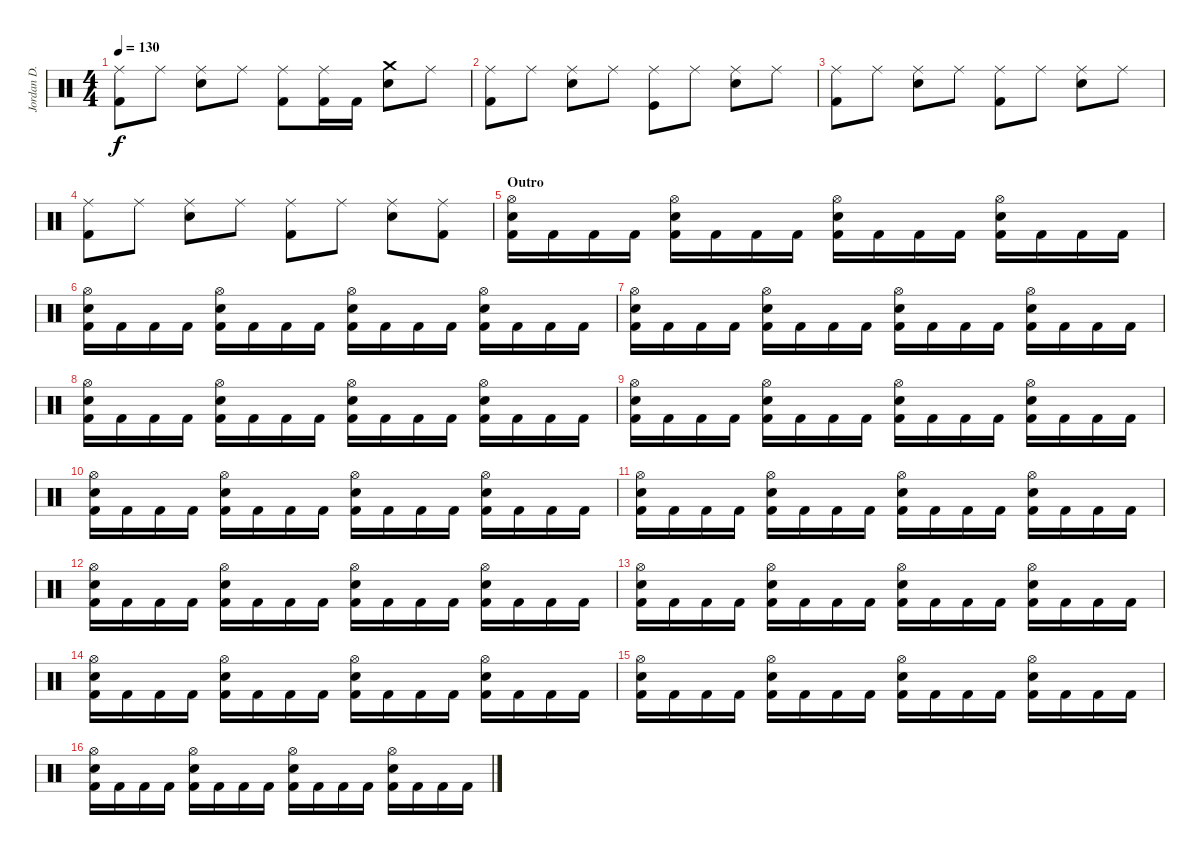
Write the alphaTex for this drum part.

\track ("Jordan D. Samolesky" "Jordan D. ") {instrument percussion}
\staff {score}
\articulation defaults
\ts (4 4)
\tempo 130
\clef neutral
\ks c
("Ride (middle)" "Kick (hit) 2").8{dy f} "Ride (middle)".8 ("Electric Snare (hit)" "Ride (middle)").8 "Ride (middle)".8 ("Ride (middle)" "Kick (hit) 2").8 ("Ride (middle)" "Kick (hit) 2").16 "Kick (hit) 2".16 ("Crash medium (hit)" "Electric Snare (hit)").8 "Ride (middle)".8 |
("Ride (middle)" "Kick (hit) 2").8 "Ride (middle)".8 ("Electric Snare (hit)" "Ride (middle)").8 "Ride (middle)".8 ("Ride (middle)" "Kick (hit)").8 "Ride (middle)".8 ("Electric Snare (hit)" "Ride (middle)").8 "Ride (middle)".8 |
("Ride (middle)" "Kick (hit) 2").8 "Ride (middle)".8 ("Electric Snare (hit)" "Ride (middle)").8 "Ride (middle)".8 ("Ride (middle)" "Kick (hit) 2").8 "Ride (middle)".8 ("Electric Snare (hit)" "Ride (middle)").8 "Ride (middle)".8 |
("Ride (middle)" "Kick (hit) 2").8 "Ride (middle)".8 ("Electric Snare (hit)" "Ride (middle)").8 "Ride (middle)".8 ("Ride (middle)" "Kick (hit) 2").8 "Ride (middle)".8 ("Electric Snare (hit)" "Ride (middle)").8 ("Ride (middle)" "Kick (hit) 2").8 |
\section ("" "Outro")
("Electric Snare (hit)" "Hi-Hat (open)" "Kick (hit) 2").16 "Kick (hit) 2".16 "Kick (hit) 2".16 "Kick (hit) 2".16 ("Electric Snare (hit)" "Hi-Hat (open)" "Kick (hit) 2").16 "Kick (hit) 2".16 "Kick (hit) 2".16 "Kick (hit) 2".16 ("Electric Snare (hit)" "Hi-Hat (open)" "Kick (hit) 2").16 "Kick (hit) 2".16 "Kick (hit) 2".16 "Kick (hit) 2".16 ("Electric Snare (hit)" "Hi-Hat (open)" "Kick (hit) 2").16 "Kick (hit) 2".16 "Kick (hit) 2".16 "Kick (hit) 2".16 |
("Electric Snare (hit)" "Hi-Hat (open)" "Kick (hit) 2").16 "Kick (hit) 2".16 "Kick (hit) 2".16 "Kick (hit) 2".16 ("Electric Snare (hit)" "Hi-Hat (open)" "Kick (hit) 2").16 "Kick (hit) 2".16 "Kick (hit) 2".16 "Kick (hit) 2".16 ("Electric Snare (hit)" "Hi-Hat (open)" "Kick (hit) 2").16 "Kick (hit) 2".16 "Kick (hit) 2".16 "Kick (hit) 2".16 ("Electric Snare (hit)" "Hi-Hat (open)" "Kick (hit) 2").16 "Kick (hit) 2".16 "Kick (hit) 2".16 "Kick (hit) 2".16 |
("Electric Snare (hit)" "Hi-Hat (open)" "Kick (hit) 2").16 "Kick (hit) 2".16 "Kick (hit) 2".16 "Kick (hit) 2".16 ("Electric Snare (hit)" "Hi-Hat (open)" "Kick (hit) 2").16 "Kick (hit) 2".16 "Kick (hit) 2".16 "Kick (hit) 2".16 ("Electric Snare (hit)" "Hi-Hat (open)" "Kick (hit) 2").16 "Kick (hit) 2".16 "Kick (hit) 2".16 "Kick (hit) 2".16 ("Electric Snare (hit)" "Hi-Hat (open)" "Kick (hit) 2").16 "Kick (hit) 2".16 "Kick (hit) 2".16 "Kick (hit) 2".16 |
("Electric Snare (hit)" "Hi-Hat (open)" "Kick (hit) 2").16 "Kick (hit) 2".16 "Kick (hit) 2".16 "Kick (hit) 2".16 ("Electric Snare (hit)" "Hi-Hat (open)" "Kick (hit) 2").16 "Kick (hit) 2".16 "Kick (hit) 2".16 "Kick (hit) 2".16 ("Electric Snare (hit)" "Hi-Hat (open)" "Kick (hit) 2").16 "Kick (hit) 2".16 "Kick (hit) 2".16 "Kick (hit) 2".16 ("Electric Snare (hit)" "Hi-Hat (open)" "Kick (hit) 2").16 "Kick (hit) 2".16 "Kick (hit) 2".16 "Kick (hit) 2".16 |
("Electric Snare (hit)" "Hi-Hat (open)" "Kick (hit) 2").16 "Kick (hit) 2".16 "Kick (hit) 2".16 "Kick (hit) 2".16 ("Electric Snare (hit)" "Hi-Hat (open)" "Kick (hit) 2").16 "Kick (hit) 2".16 "Kick (hit) 2".16 "Kick (hit) 2".16 ("Electric Snare (hit)" "Hi-Hat (open)" "Kick (hit) 2").16 "Kick (hit) 2".16 "Kick (hit) 2".16 "Kick (hit) 2".16 ("Electric Snare (hit)" "Hi-Hat (open)" "Kick (hit) 2").16 "Kick (hit) 2".16 "Kick (hit) 2".16 "Kick (hit) 2".16 |
("Electric Snare (hit)" "Hi-Hat (open)" "Kick (hit) 2").16 "Kick (hit) 2".16 "Kick (hit) 2".16 "Kick (hit) 2".16 ("Electric Snare (hit)" "Hi-Hat (open)" "Kick (hit) 2").16 "Kick (hit) 2".16 "Kick (hit) 2".16 "Kick (hit) 2".16 ("Electric Snare (hit)" "Hi-Hat (open)" "Kick (hit) 2").16 "Kick (hit) 2".16 "Kick (hit) 2".16 "Kick (hit) 2".16 ("Electric Snare (hit)" "Hi-Hat (open)" "Kick (hit) 2").16 "Kick (hit) 2".16 "Kick (hit) 2".16 "Kick (hit) 2".16 |
("Electric Snare (hit)" "Hi-Hat (open)" "Kick (hit) 2").16 "Kick (hit) 2".16 "Kick (hit) 2".16 "Kick (hit) 2".16 ("Electric Snare (hit)" "Hi-Hat (open)" "Kick (hit) 2").16 "Kick (hit) 2".16 "Kick (hit) 2".16 "Kick (hit) 2".16 ("Electric Snare (hit)" "Hi-Hat (open)" "Kick (hit) 2").16 "Kick (hit) 2".16 "Kick (hit) 2".16 "Kick (hit) 2".16 ("Electric Snare (hit)" "Hi-Hat (open)" "Kick (hit) 2").16 "Kick (hit) 2".16 "Kick (hit) 2".16 "Kick (hit) 2".16 |
("Electric Snare (hit)" "Hi-Hat (open)" "Kick (hit) 2").16 "Kick (hit) 2".16 "Kick (hit) 2".16 "Kick (hit) 2".16 ("Electric Snare (hit)" "Hi-Hat (open)" "Kick (hit) 2").16 "Kick (hit) 2".16 "Kick (hit) 2".16 "Kick (hit) 2".16 ("Electric Snare (hit)" "Hi-Hat (open)" "Kick (hit) 2").16 "Kick (hit) 2".16 "Kick (hit) 2".16 "Kick (hit) 2".16 ("Electric Snare (hit)" "Hi-Hat (open)" "Kick (hit) 2").16 "Kick (hit) 2".16 "Kick (hit) 2".16 "Kick (hit) 2".16 |
("Electric Snare (hit)" "Hi-Hat (open)" "Kick (hit) 2").16 "Kick (hit) 2".16 "Kick (hit) 2".16 "Kick (hit) 2".16 ("Electric Snare (hit)" "Hi-Hat (open)" "Kick (hit) 2").16 "Kick (hit) 2".16 "Kick (hit) 2".16 "Kick (hit) 2".16 ("Electric Snare (hit)" "Hi-Hat (open)" "Kick (hit) 2").16 "Kick (hit) 2".16 "Kick (hit) 2".16 "Kick (hit) 2".16 ("Electric Snare (hit)" "Hi-Hat (open)" "Kick (hit) 2").16 "Kick (hit) 2".16 "Kick (hit) 2".16 "Kick (hit) 2".16 |
("Electric Snare (hit)" "Hi-Hat (open)" "Kick (hit) 2").16 "Kick (hit) 2".16 "Kick (hit) 2".16 "Kick (hit) 2".16 ("Electric Snare (hit)" "Hi-Hat (open)" "Kick (hit) 2").16 "Kick (hit) 2".16 "Kick (hit) 2".16 "Kick (hit) 2".16 ("Electric Snare (hit)" "Hi-Hat (open)" "Kick (hit) 2").16 "Kick (hit) 2".16 "Kick (hit) 2".16 "Kick (hit) 2".16 ("Electric Snare (hit)" "Hi-Hat (open)" "Kick (hit) 2").16 "Kick (hit) 2".16 "Kick (hit) 2".16 "Kick (hit) 2".16 |
("Electric Snare (hit)" "Hi-Hat (open)" "Kick (hit) 2").16 "Kick (hit) 2".16 "Kick (hit) 2".16 "Kick (hit) 2".16 ("Electric Snare (hit)" "Hi-Hat (open)" "Kick (hit) 2").16 "Kick (hit) 2".16 "Kick (hit) 2".16 "Kick (hit) 2".16 ("Electric Snare (hit)" "Hi-Hat (open)" "Kick (hit) 2").16 "Kick (hit) 2".16 "Kick (hit) 2".16 "Kick (hit) 2".16 ("Electric Snare (hit)" "Hi-Hat (open)" "Kick (hit) 2").16 "Kick (hit) 2".16 "Kick (hit) 2".16 "Kick (hit) 2".16 |
("Electric Snare (hit)" "Hi-Hat (open)" "Kick (hit) 2").16 "Kick (hit) 2".16 "Kick (hit) 2".16 "Kick (hit) 2".16 ("Electric Snare (hit)" "Hi-Hat (open)" "Kick (hit) 2").16 "Kick (hit) 2".16 "Kick (hit) 2".16 "Kick (hit) 2".16 ("Electric Snare (hit)" "Hi-Hat (open)" "Kick (hit) 2").16 "Kick (hit) 2".16 "Kick (hit) 2".16 "Kick (hit) 2".16 ("Electric Snare (hit)" "Hi-Hat (open)" "Kick (hit) 2").16 "Kick (hit) 2".16 "Kick (hit) 2".16 "Kick (hit) 2".16
